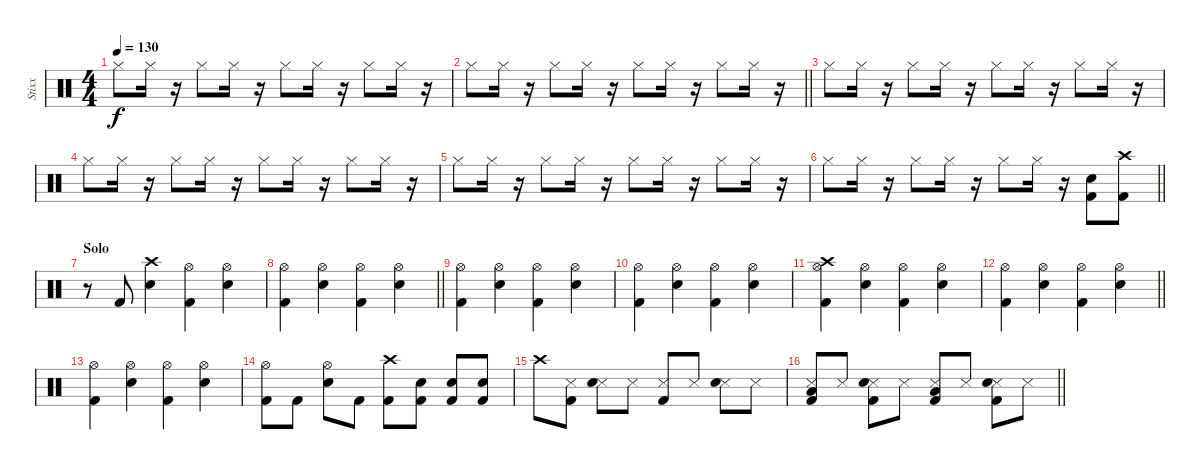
\track ("Stixx" "Stixx") {instrument percussion}
\staff {score}
\articulation defaults
\ts (4 4)
\tempo 130
\clef neutral
\ks c "Hi-Hat (closed)".8{dy f} "Hi-Hat (closed)".16
r.16 "Hi-Hat (closed)".8 "Hi-Hat (closed)".16 r.16 "Hi-Hat (closed)".8 "Hi-Hat (closed)".16 r.16 "Hi-Hat (closed)".8 "Hi-Hat (closed)".16 r.16 |
\barLineRight lightlight "Hi-Hat (closed)".8 "Hi-Hat (closed)".16
r.16 "Hi-Hat (closed)".8 "Hi-Hat (closed)".16 r.16 "Hi-Hat (closed)".8 "Hi-Hat (closed)".16 r.16 "Hi-Hat (closed)".8 "Hi-Hat (closed)".16 r.16 |
"Hi-Hat (closed)".8 "Hi-Hat (closed)".16 r.16 "Hi-Hat (closed)".8 "Hi-Hat (closed)".16 r.16 "Hi-Hat (closed)".8 "Hi-Hat (closed)".16 r.16 "Hi-Hat (closed)".8 "Hi-Hat (closed)".16 r.16 |
"Hi-Hat (closed)".8 "Hi-Hat (closed)".16 r.16 "Hi-Hat (closed)".8 "Hi-Hat (closed)".16 r.16 "Hi-Hat (closed)".8 "Hi-Hat (closed)".16 r.16 "Hi-Hat (closed)".8 "Hi-Hat (closed)".16 r.16 |
"Hi-Hat (closed)".8 "Hi-Hat (closed)".16 r.16 "Hi-Hat (closed)".8 "Hi-Hat (closed)".16 r.16 "Hi-Hat (closed)".8 "Hi-Hat (closed)".16 r.16 "Hi-Hat (closed)".8 "Hi-Hat (closed)".16 r.16 |
\barLineRight lightlight "Hi-Hat (closed)".8 "Hi-Hat (closed)".16
r.16 "Hi-Hat (closed)".8 "Hi-Hat (closed)".16 r.16 "Hi-Hat (closed)".8 "Hi-Hat (closed)".16 r.16 ("Snare (hit) 2" "Kick (hit) 2").8 ("Crash high (hit)" "Kick (hit) 2").8 |
\section ("" "Solo")
r.8 "Kick (hit) 2".8 ("Crash high (hit)" "Snare (hit) 2").4 ("Hi-Hat (open)" "Kick (hit) 2").4 ("Hi-Hat (open)" "Snare (hit) 2").4 |
\barLineRight lightlight
("Hi-Hat (open)" "Kick (hit) 2").4 ("Hi-Hat (open)" "Snare (hit) 2").4 ("Hi-Hat (open)" "Kick (hit) 2").4 ("Hi-Hat (open)" "Snare (hit) 2").4 |
("Hi-Hat (open)" "Kick (hit) 2").4 ("Hi-Hat (open)" "Snare (hit) 2").4 ("Hi-Hat (open)" "Kick (hit) 2").4 ("Hi-Hat (open)" "Snare (hit) 2").4 |
("Hi-Hat (open)" "Kick (hit) 2").4 ("Hi-Hat (open)" "Snare (hit) 2").4 ("Hi-Hat (open)" "Kick (hit) 2").4 ("Hi-Hat (open)" "Snare (hit) 2").4 |
("Crash high (hit)" "Hi-Hat (open)" "Kick (hit) 2").4 ("Hi-Hat (open)" "Snare (hit) 2").4 ("Hi-Hat (open)" "Kick (hit) 2").4 ("Hi-Hat (open)" "Snare (hit) 2").4 |
\barLineRight lightlight
("Hi-Hat (open)" "Kick (hit) 2").4 ("Hi-Hat (open)" "Snare (hit) 2").4 ("Hi-Hat (open)" "Kick (hit) 2").4 ("Hi-Hat (open)" "Snare (hit) 2").4 |
("Hi-Hat (open)" "Kick (hit) 2").4 ("Hi-Hat (open)" "Snare (hit) 2").4 ("Hi-Hat (open)" "Kick (hit) 2").4 ("Hi-Hat (open)" "Snare (hit) 2").4 |
("Hi-Hat (open)" "Kick (hit) 2").8 "Kick (hit) 2".8 ("Hi-Hat (open)" "Snare (hit) 2").8 "Kick (hit) 2".8 ("Crash high (hit)" "Kick (hit) 2").8 ("Snare (hit) 2" "Kick (hit) 2").8 ("Snare (hit) 2" "Kick (hit) 2").8 ("Snare (hit) 2" "Kick (hit) 2").8 |
"Crash high (hit)".8 ("Snare (side stick) 3" "Kick (hit) 2").8 ("Snare (side stick) 3" "Snare (hit) 2").8 "Snare (side stick) 3".8 ("Snare (side stick) 3" "Kick (hit) 2").8 "Snare (side stick) 3".8 ("Snare (side stick) 3" "Snare (hit) 2").8 "Snare (side stick) 3".8 |
\barLineRight lightlight
("Snare (side stick) 3" "Low Floor Tom (hit)" "Kick (hit) 2").8 "Snare (side stick) 3".8 ("Snare (side stick) 3" "Snare (hit) 2" "Kick (hit) 2").8 "Snare (side stick) 3".8 ("Snare (side stick) 3" "Low Floor Tom (hit)" "Kick (hit) 2").8 "Snare (side stick) 3".8 ("Snare (side stick) 3" "Snare (hit) 2" "Kick (hit) 2").8 "Snare (side stick) 3".8
